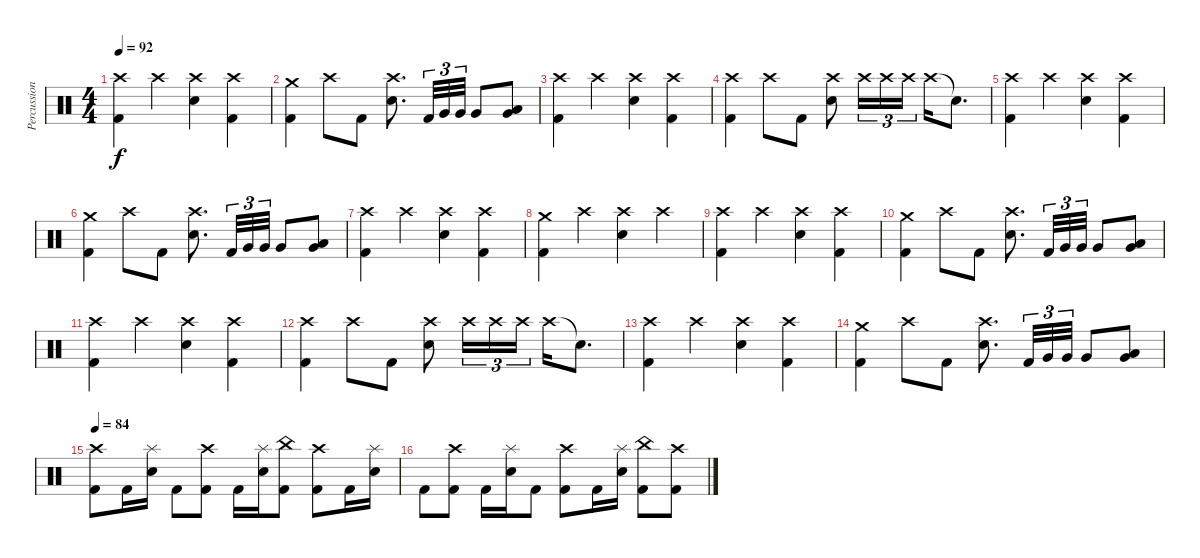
\track ("Percussion" "Percussion") {instrument percussion}
\staff {score}
\articulation defaults
\ts (4 4)
\tempo 92
\clef neutral
\ks c
("Crash high (hit)" "Kick (hit) 2").4{dy f} "Crash high (hit)".4 ("Crash high (hit)" "Electric Snare (hit)").4 ("Crash high (hit)" "Kick (hit) 2").4 |
("Crash medium (hit)" "Kick (hit) 2").4 "Crash high (hit)".8 "Kick (hit) 2".8 ("Crash high (hit)" "Electric Snare (hit)").8{d} "Kick (hit) 2".32{tu (3 2)} "Very Low Tom (hit)".32{tu (3 2)} "Very Low Tom (hit)".32{tu (3 2)} "Very Low Tom (hit)".8 ("Low Tom (hit)" "Very Low Tom (hit)").8 |
("Crash high (hit)" "Kick (hit) 2").4 "Crash high (hit)".4 ("Crash high (hit)" "Electric Snare (hit)").4 ("Kick (hit) 2" "Crash high (hit)").4 |
("Crash high (hit)" "Kick (hit) 2").4 "Crash high (hit)".8 "Kick (hit) 2".8 ("Crash high (hit)" "Electric Snare (hit)").8 "Crash high (hit)".16{tu (3 2)} "Crash high (hit)".16{tu (3 2)} "Crash high (hit)".16{tu (3 2)} "Crash high (hit)".16 "Snare (hit)"{t}.8{d} |
("Crash high (hit)" "Kick (hit) 2").4 "Crash high (hit)".4 ("Crash high (hit)" "Electric Snare (hit)").4 ("Crash high (hit)" "Kick (hit) 2").4 |
("Crash medium (hit)" "Kick (hit) 2").4 "Crash high (hit)".8 "Kick (hit) 2".8 ("Crash high (hit)" "Electric Snare (hit)").8{d} "Kick (hit) 2".32{tu (3 2)} "Very Low Tom (hit)".32{tu (3 2)} "Very Low Tom (hit)".32{tu (3 2)} "Very Low Tom (hit)".8 ("Low Tom (hit)" "Very Low Tom (hit)").8 |
("Crash high (hit)" "Kick (hit) 2").4 "Crash high (hit)".4 ("Crash high (hit)" "Electric Snare (hit)").4 ("Crash high (hit)" "Kick (hit) 2").4 |
("Crash medium (hit)" "Kick (hit) 2").4 "Crash high (hit)".4 ("Crash high (hit)" "Electric Snare (hit)").4 "Crash high (hit)".4 |
("Crash high (hit)" "Kick (hit) 2").4 "Crash high (hit)".4 ("Crash high (hit)" "Electric Snare (hit)").4 ("Crash high (hit)" "Kick (hit) 2").4 |
("Crash medium (hit)" "Kick (hit) 2").4 "Crash high (hit)".8 "Kick (hit) 2".8 ("Crash high (hit)" "Electric Snare (hit)").8{d} "Kick (hit) 2".32{tu (3 2)} "Very Low Tom (hit)".32{tu (3 2)} "Very Low Tom (hit)".32{tu (3 2)} "Very Low Tom (hit)".8 ("Low Tom (hit)" "Very Low Tom (hit)").8 |
("Crash high (hit)" "Kick (hit) 2").4 "Crash high (hit)".4 ("Crash high (hit)" "Electric Snare (hit)").4 ("Kick (hit) 2" "Crash high (hit)").4 |
("Crash high (hit)" "Kick (hit) 2").4 "Crash high (hit)".8 "Kick (hit) 2".8 ("Crash high (hit)" "Electric Snare (hit)").8 "Crash high (hit)".16{tu (3 2)} "Crash high (hit)".16{tu (3 2)} "Crash high (hit)".16{tu (3 2)} "Crash high (hit)".16 "Snare (hit)"{t}.8{d} |
("Crash high (hit)" "Kick (hit) 2").4 "Crash high (hit)".4 ("Crash high (hit)" "Electric Snare (hit)").4 ("Crash high (hit)" "Kick (hit) 2").4 |
("Crash medium (hit)" "Kick (hit) 2").4 "Crash high (hit)".8 "Kick (hit) 2".8 ("Crash high (hit)" "Electric Snare (hit)").8{d} "Kick (hit) 2".32{tu (3 2)} "Very Low Tom (hit)".32{tu (3 2)} "Very Low Tom (hit)".32{tu (3 2)} "Very Low Tom (hit)".8 ("Low Tom (hit)" "Very Low Tom (hit)").8 |
\tempo 84
("Crash high (hit)" "Kick (hit) 2").8 "Kick (hit) 2".16 ("Splash (hit)" "Electric Snare (hit)").16 "Kick (hit) 2".8 ("Crash high (hit)" "Kick (hit) 2").8 "Kick (hit) 2".16 ("Splash (hit)" "Electric Snare (hit)").16 ("China (hit)" "Kick (hit) 2").8 ("Crash high (hit)" "Kick (hit) 2").8 "Kick (hit) 2".16 ("Splash (hit)" "Electric Snare (hit)").16 |
"Kick (hit) 2".8 ("Crash high (hit)" "Kick (hit) 2").8 "Kick (hit) 2".16 ("Splash (hit)" "Electric Snare (hit)").16 "Kick (hit) 2".8 ("Crash high (hit)" "Kick (hit) 2").8 "Kick (hit) 2".16 ("Splash (hit)" "Electric Snare (hit)").16 ("China (hit)" "Kick (hit) 2").8 ("Crash high (hit)" "Kick (hit) 2").8
